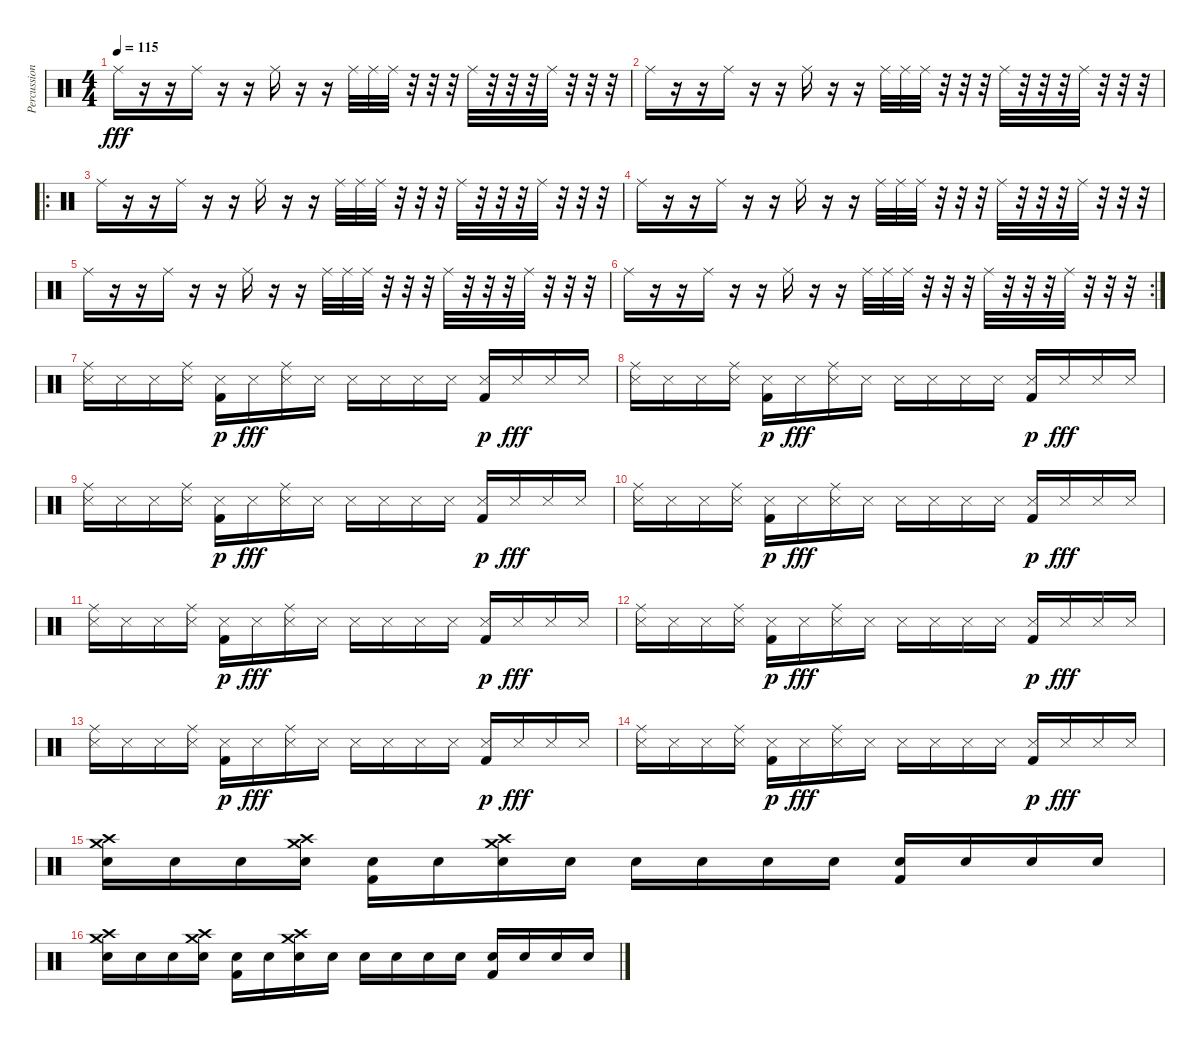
\track ("Percussion" "Percussion") {instrument percussion}
\staff {score}
\articulation defaults
\ts (4 4)
\tempo 115
\clef neutral
\ks c "Ride (middle)".16{dy fff}
r.16 r.16 "Ride (middle)".16 r.16 r.16 "Ride (middle)".16 r.16 r.16 "Ride (middle)".32 "Ride (middle)".32 "Ride (middle)".32 r.32 r.32 r.32 "Ride (middle)".32 r.32 r.32 r.32 "Ride (middle)".32 r.32 r.32 r.32 |
"Ride (middle)".16 r.16 r.16 "Ride (middle)".16 r.16 r.16 "Ride (middle)".16 r.16 r.16 "Ride (middle)".32 "Ride (middle)".32 "Ride (middle)".32 r.32 r.32 r.32 "Ride (middle)".32 r.32 r.32 r.32 "Ride (middle)".32 r.32 r.32 r.32 |
\ro "Ride (middle)".16
r.16 r.16 "Ride (middle)".16 r.16 r.16 "Ride (middle)".16 r.16 r.16 "Ride (middle)".32 "Ride (middle)".32 "Ride (middle)".32 r.32 r.32 r.32 "Ride (middle)".32 r.32 r.32 r.32 "Ride (middle)".32 r.32 r.32 r.32 |
"Ride (middle)".16 r.16 r.16 "Ride (middle)".16 r.16 r.16 "Ride (middle)".16 r.16 r.16 "Ride (middle)".32 "Ride (middle)".32 "Ride (middle)".32 r.32 r.32 r.32 "Ride (middle)".32 r.32 r.32 r.32 "Ride (middle)".32 r.32 r.32 r.32 |
"Ride (middle)".16 r.16 r.16 "Ride (middle)".16 r.16 r.16 "Ride (middle)".16 r.16 r.16 "Ride (middle)".32 "Ride (middle)".32 "Ride (middle)".32 r.32 r.32 r.32 "Ride (middle)".32 r.32 r.32 r.32 "Ride (middle)".32 r.32 r.32 r.32 |
\rc 2 "Ride (middle)".16
r.16 r.16 "Ride (middle)".16 r.16 r.16 "Ride (middle)".16 r.16 r.16 "Ride (middle)".32 "Ride (middle)".32 "Ride (middle)".32 r.32 r.32 r.32 "Ride (middle)".32 r.32 r.32 r.32 "Ride (middle)".32 r.32 r.32 r.32 |
("Ride (middle)" "Snare (side stick) 3").16 "Snare (side stick) 3".16 "Snare (side stick) 3".16 ("Ride (middle)" "Snare (side stick) 3").16 ("Snare (side stick) 3" "Kick (hit) 2").16{dy p} "Snare (side stick) 3".16{dy fff} ("Ride (middle)" "Snare (side stick) 3").16 "Snare (side stick) 3".16 "Snare (side stick) 3".16 "Snare (side stick) 3".16 "Snare (side stick) 3".16 "Snare (side stick) 3".16 ("Snare (side stick) 3" "Kick (hit) 2").16{dy p} "Snare (side stick) 3".16{dy fff} "Snare (side stick) 3".16 "Snare (side stick) 3".16 |
("Ride (middle)" "Snare (side stick) 3").16 "Snare (side stick) 3".16 "Snare (side stick) 3".16 ("Ride (middle)" "Snare (side stick) 3").16 ("Snare (side stick) 3" "Kick (hit) 2").16{dy p} "Snare (side stick) 3".16{dy fff} ("Ride (middle)" "Snare (side stick) 3").16 "Snare (side stick) 3".16 "Snare (side stick) 3".16 "Snare (side stick) 3".16 "Snare (side stick) 3".16 "Snare (side stick) 3".16 ("Snare (side stick) 3" "Kick (hit) 2").16{dy p} "Snare (side stick) 3".16{dy fff} "Snare (side stick) 3".16 "Snare (side stick) 3".16 |
("Ride (middle)" "Snare (side stick) 3").16 "Snare (side stick) 3".16 "Snare (side stick) 3".16 ("Ride (middle)" "Snare (side stick) 3").16 ("Snare (side stick) 3" "Kick (hit) 2").16{dy p} "Snare (side stick) 3".16{dy fff} ("Ride (middle)" "Snare (side stick) 3").16 "Snare (side stick) 3".16 "Snare (side stick) 3".16 "Snare (side stick) 3".16 "Snare (side stick) 3".16 "Snare (side stick) 3".16 ("Snare (side stick) 3" "Kick (hit) 2").16{dy p} "Snare (side stick) 3".16{dy fff} "Snare (side stick) 3".16 "Snare (side stick) 3".16 |
("Ride (middle)" "Snare (side stick) 3").16 "Snare (side stick) 3".16 "Snare (side stick) 3".16 ("Ride (middle)" "Snare (side stick) 3").16 ("Snare (side stick) 3" "Kick (hit) 2").16{dy p} "Snare (side stick) 3".16{dy fff} ("Ride (middle)" "Snare (side stick) 3").16 "Snare (side stick) 3".16 "Snare (side stick) 3".16 "Snare (side stick) 3".16 "Snare (side stick) 3".16 "Snare (side stick) 3".16 ("Snare (side stick) 3" "Kick (hit) 2").16{dy p} "Snare (side stick) 3".16{dy fff} "Snare (side stick) 3".16 "Snare (side stick) 3".16 |
("Ride (middle)" "Snare (side stick) 3").16 "Snare (side stick) 3".16 "Snare (side stick) 3".16 ("Ride (middle)" "Snare (side stick) 3").16 ("Snare (side stick) 3" "Kick (hit) 2").16{dy p} "Snare (side stick) 3".16{dy fff} ("Ride (middle)" "Snare (side stick) 3").16 "Snare (side stick) 3".16 "Snare (side stick) 3".16 "Snare (side stick) 3".16 "Snare (side stick) 3".16 "Snare (side stick) 3".16 ("Snare (side stick) 3" "Kick (hit) 2").16{dy p} "Snare (side stick) 3".16{dy fff} "Snare (side stick) 3".16 "Snare (side stick) 3".16 |
("Ride (middle)" "Snare (side stick) 3").16 "Snare (side stick) 3".16 "Snare (side stick) 3".16 ("Ride (middle)" "Snare (side stick) 3").16 ("Snare (side stick) 3" "Kick (hit) 2").16{dy p} "Snare (side stick) 3".16{dy fff} ("Ride (middle)" "Snare (side stick) 3").16 "Snare (side stick) 3".16 "Snare (side stick) 3".16 "Snare (side stick) 3".16 "Snare (side stick) 3".16 "Snare (side stick) 3".16 ("Snare (side stick) 3" "Kick (hit) 2").16{dy p} "Snare (side stick) 3".16{dy fff} "Snare (side stick) 3".16 "Snare (side stick) 3".16 |
("Ride (middle)" "Snare (side stick) 3").16 "Snare (side stick) 3".16 "Snare (side stick) 3".16 ("Ride (middle)" "Snare (side stick) 3").16 ("Snare (side stick) 3" "Kick (hit) 2").16{dy p} "Snare (side stick) 3".16{dy fff} ("Ride (middle)" "Snare (side stick) 3").16 "Snare (side stick) 3".16 "Snare (side stick) 3".16 "Snare (side stick) 3".16 "Snare (side stick) 3".16 "Snare (side stick) 3".16 ("Snare (side stick) 3" "Kick (hit) 2").16{dy p} "Snare (side stick) 3".16{dy fff} "Snare (side stick) 3".16 "Snare (side stick) 3".16 |
("Ride (middle)" "Snare (side stick) 3").16 "Snare (side stick) 3".16 "Snare (side stick) 3".16 ("Ride (middle)" "Snare (side stick) 3").16 ("Snare (side stick) 3" "Kick (hit) 2").16{dy p} "Snare (side stick) 3".16{dy fff} ("Ride (middle)" "Snare (side stick) 3").16 "Snare (side stick) 3".16 "Snare (side stick) 3".16 "Snare (side stick) 3".16 "Snare (side stick) 3".16 "Snare (side stick) 3".16 ("Snare (side stick) 3" "Kick (hit) 2").16{dy p} "Snare (side stick) 3".16{dy fff} "Snare (side stick) 3".16 "Snare (side stick) 3".16 |
("Crash medium (hit)" "Crash high (hit)" "Electric Snare (hit)").16 "Electric Snare (hit)".16 "Electric Snare (hit)".16 ("Crash medium (hit)" "Crash high (hit)" "Electric Snare (hit)").16 ("Electric Snare (hit)" "Kick (hit) 2").16 "Electric Snare (hit)".16 ("Crash medium (hit)" "Crash high (hit)" "Electric Snare (hit)").16 "Electric Snare (hit)".16 "Electric Snare (hit)".16 "Electric Snare (hit)".16 "Electric Snare (hit)".16 "Electric Snare (hit)".16 ("Electric Snare (hit)" "Kick (hit) 2").16 "Electric Snare (hit)".16 "Electric Snare (hit)".16 "Electric Snare (hit)".16 |
("Crash medium (hit)" "Crash high (hit)" "Electric Snare (hit)").16 "Electric Snare (hit)".16 "Electric Snare (hit)".16 ("Crash medium (hit)" "Crash high (hit)" "Electric Snare (hit)").16 ("Electric Snare (hit)" "Kick (hit) 2").16 "Electric Snare (hit)".16 ("Crash medium (hit)" "Crash high (hit)" "Electric Snare (hit)").16 "Electric Snare (hit)".16 "Electric Snare (hit)".16 "Electric Snare (hit)".16 "Electric Snare (hit)".16 "Electric Snare (hit)".16 ("Electric Snare (hit)" "Kick (hit) 2").16 "Electric Snare (hit)".16 "Electric Snare (hit)".16 "Electric Snare (hit)".16
